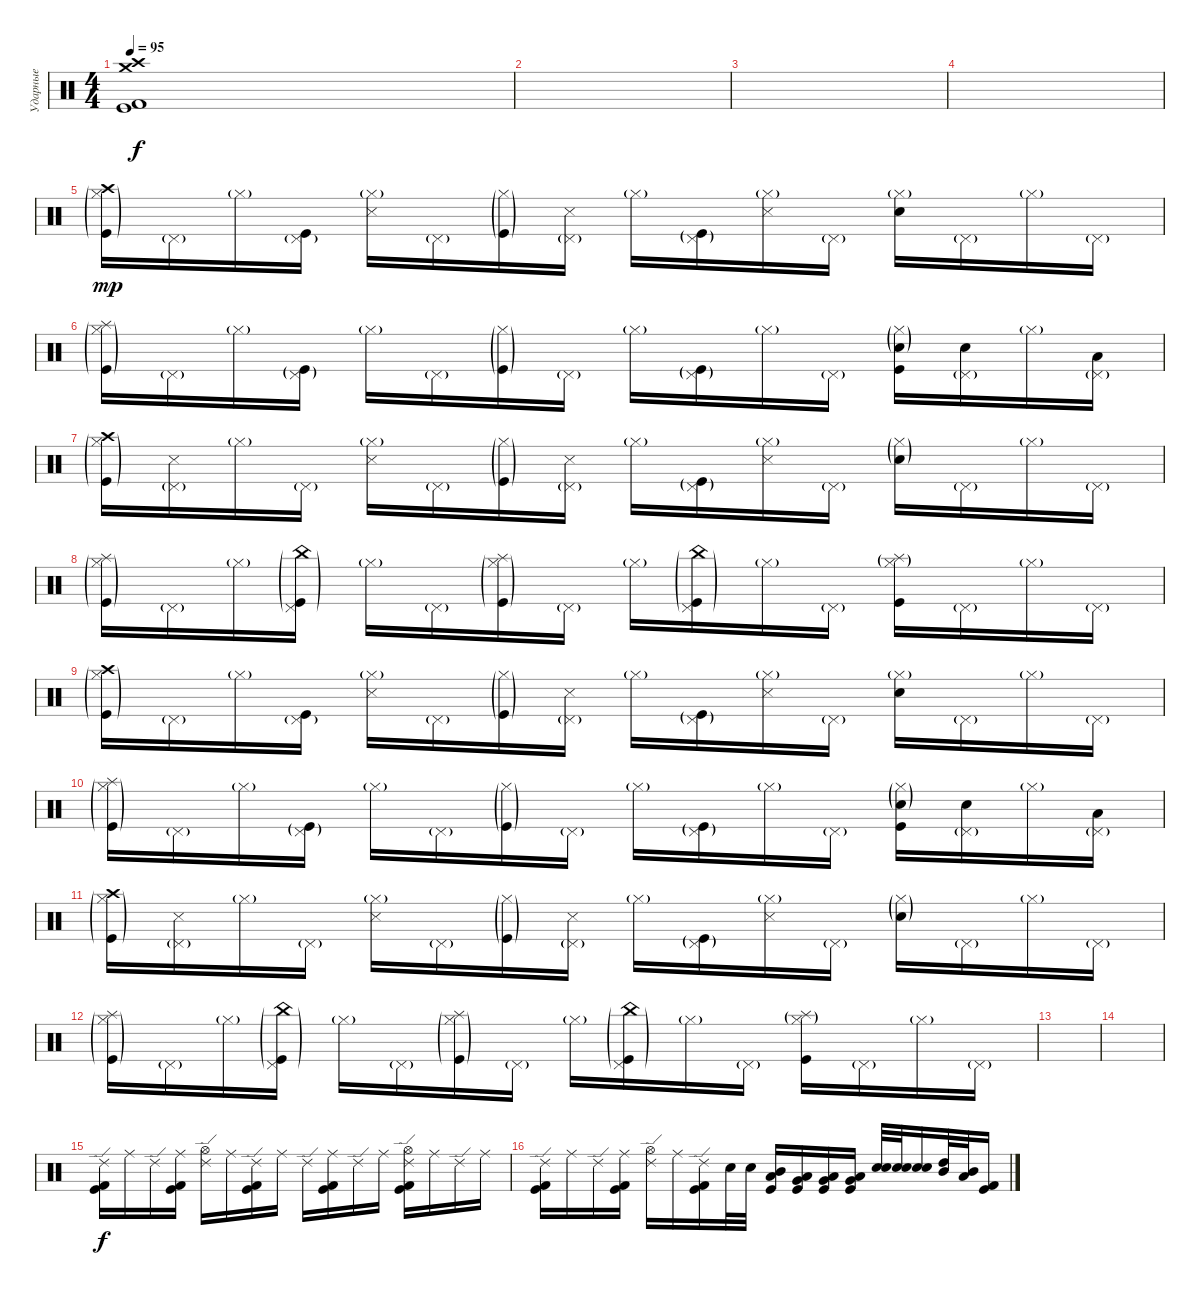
\track ("Ударные" "Ударные") {instrument percussion}
\staff {score}
\articulation defaults
\ts (4 4)
\tempo 95
\clef neutral
\ks c
("Crash high (hit)" "Crash medium (hit)" "Kick (hit) 2" "Kick (hit)").1{dy f} |
|
|
|
("Hi-Hat (closed)"{g} "Crash high (hit)"{g} "Kick (hit)"{g}).16{dy mp} "Pedal Hi-Hat (hit)"{g}.16 "Hi-Hat (closed)"{g}.16 ("Pedal Hi-Hat (hit)"{g} "Kick (hit)").16 ("Hi-Hat (closed)"{g} "Snare (side stick) 3").16 "Pedal Hi-Hat (hit)"{g}.16 ("Hi-Hat (closed)"{g} "Kick (hit)"{g}).16 ("Pedal Hi-Hat (hit)"{g} "Metronome (hit)").16 "Hi-Hat (closed)"{g}.16 ("Pedal Hi-Hat (hit)"{g} "Kick (hit)"{g}).16 ("Hi-Hat (closed)"{g} "Snare (side stick) 3").16 "Pedal Hi-Hat (hit)"{g}.16 ("Hi-Hat (closed)"{g} "Electric Snare (hit)").16 "Pedal Hi-Hat (hit)"{g}.16 "Hi-Hat (closed)"{g}.16 "Pedal Hi-Hat (hit)"{g}.16 |
("Hi-Hat (closed)"{g} "Splash (hit)"{g} "Kick (hit)"{g}).16 "Pedal Hi-Hat (hit)"{g}.16 "Hi-Hat (closed)"{g}.16 ("Pedal Hi-Hat (hit)"{g} "Kick (hit)"{g}).16 "Hi-Hat (closed)"{g}.16 "Pedal Hi-Hat (hit)"{g}.16 ("Hi-Hat (closed)"{g} "Kick (hit)"{g}).16 "Pedal Hi-Hat (hit)"{g}.16 "Hi-Hat (closed)"{g}.16 ("Pedal Hi-Hat (hit)"{g} "Kick (hit)"{g}).16 "Hi-Hat (closed)"{g}.16 "Pedal Hi-Hat (hit)"{g}.16 ("Hi-Hat (closed)"{g} "Electric Snare (hit)"{g} "Kick (hit)").16 ("Pedal Hi-Hat (hit)"{g} "Electric Snare (hit)").16 "Hi-Hat (closed)"{g}.16 ("Pedal Hi-Hat (hit)"{g} "Low Tom (hit)").16 |
("Hi-Hat (closed)"{g} "Crash high (hit)"{g} "Kick (hit)"{g}).16 ("Pedal Hi-Hat (hit)"{g} "Metronome (hit)").16 "Hi-Hat (closed)"{g}.16 "Pedal Hi-Hat (hit)"{g}.16 ("Hi-Hat (closed)"{g} "Snare (side stick) 3").16 "Pedal Hi-Hat (hit)"{g}.16 ("Hi-Hat (closed)"{g} "Kick (hit)"{g}).16 ("Pedal Hi-Hat (hit)"{g} "Metronome (hit)").16 "Hi-Hat (closed)"{g}.16 ("Pedal Hi-Hat (hit)"{g} "Kick (hit)"{g}).16 ("Hi-Hat (closed)"{g} "Snare (side stick) 3").16 "Pedal Hi-Hat (hit)"{g}.16 ("Hi-Hat (closed)"{g} "Electric Snare (hit)"{g}).16 "Pedal Hi-Hat (hit)"{g}.16 "Hi-Hat (closed)"{g}.16 "Pedal Hi-Hat (hit)"{g}.16 |
("Hi-Hat (closed)"{g} "Splash (hit)"{g} "Kick (hit)"{g}).16 "Pedal Hi-Hat (hit)"{g}.16 "Hi-Hat (closed)"{g}.16 ("Pedal Hi-Hat (hit)"{g} "China (hit)"{g} "Kick (hit)"{g}).16 "Hi-Hat (closed)"{g}.16 "Pedal Hi-Hat (hit)"{g}.16 ("Hi-Hat (closed)"{g} "Splash (hit)"{g} "Kick (hit)"{g}).16 "Pedal Hi-Hat (hit)"{g}.16 "Hi-Hat (closed)"{g}.16 ("Pedal Hi-Hat (hit)"{g} "China (hit)"{g} "Kick (hit)"{g}).16 "Hi-Hat (closed)"{g}.16 "Pedal Hi-Hat (hit)"{g}.16 ("Hi-Hat (closed)"{g} "Splash (hit)"{g} "Kick (hit)").16 "Pedal Hi-Hat (hit)"{g}.16 "Hi-Hat (closed)"{g}.16 "Pedal Hi-Hat (hit)"{g}.16 |
("Hi-Hat (closed)"{g} "Crash high (hit)"{g} "Kick (hit)"{g}).16 "Pedal Hi-Hat (hit)"{g}.16 "Hi-Hat (closed)"{g}.16 ("Pedal Hi-Hat (hit)"{g} "Kick (hit)").16 ("Hi-Hat (closed)"{g} "Snare (side stick) 3").16 "Pedal Hi-Hat (hit)"{g}.16 ("Hi-Hat (closed)"{g} "Kick (hit)"{g}).16 ("Pedal Hi-Hat (hit)"{g} "Metronome (hit)").16 "Hi-Hat (closed)"{g}.16 ("Pedal Hi-Hat (hit)"{g} "Kick (hit)"{g}).16 ("Hi-Hat (closed)"{g} "Snare (side stick) 3").16 "Pedal Hi-Hat (hit)"{g}.16 ("Hi-Hat (closed)"{g} "Electric Snare (hit)").16 "Pedal Hi-Hat (hit)"{g}.16 "Hi-Hat (closed)"{g}.16 "Pedal Hi-Hat (hit)"{g}.16 |
("Hi-Hat (closed)"{g} "Splash (hit)"{g} "Kick (hit)"{g}).16 "Pedal Hi-Hat (hit)"{g}.16 "Hi-Hat (closed)"{g}.16 ("Pedal Hi-Hat (hit)"{g} "Kick (hit)"{g}).16 "Hi-Hat (closed)"{g}.16 "Pedal Hi-Hat (hit)"{g}.16 ("Hi-Hat (closed)"{g} "Kick (hit)"{g}).16 "Pedal Hi-Hat (hit)"{g}.16 "Hi-Hat (closed)"{g}.16 ("Pedal Hi-Hat (hit)"{g} "Kick (hit)"{g}).16 "Hi-Hat (closed)"{g}.16 "Pedal Hi-Hat (hit)"{g}.16 ("Hi-Hat (closed)"{g} "Electric Snare (hit)"{g} "Kick (hit)").16 ("Pedal Hi-Hat (hit)"{g} "Electric Snare (hit)").16 "Hi-Hat (closed)"{g}.16 ("Pedal Hi-Hat (hit)"{g} "Low Tom (hit)").16 |
("Hi-Hat (closed)"{g} "Crash high (hit)"{g} "Kick (hit)"{g}).16 ("Pedal Hi-Hat (hit)"{g} "Metronome (hit)").16 "Hi-Hat (closed)"{g}.16 "Pedal Hi-Hat (hit)"{g}.16 ("Hi-Hat (closed)"{g} "Snare (side stick) 3").16 "Pedal Hi-Hat (hit)"{g}.16 ("Hi-Hat (closed)"{g} "Kick (hit)"{g}).16 ("Pedal Hi-Hat (hit)"{g} "Metronome (hit)").16 "Hi-Hat (closed)"{g}.16 ("Pedal Hi-Hat (hit)"{g} "Kick (hit)"{g}).16 ("Hi-Hat (closed)"{g} "Snare (side stick) 3").16 "Pedal Hi-Hat (hit)"{g}.16 ("Hi-Hat (closed)"{g} "Electric Snare (hit)"{g}).16 "Pedal Hi-Hat (hit)"{g}.16 "Hi-Hat (closed)"{g}.16 "Pedal Hi-Hat (hit)"{g}.16 |
("Hi-Hat (closed)"{g} "Splash (hit)"{g} "Kick (hit)"{g}).16 "Pedal Hi-Hat (hit)"{g}.16 "Hi-Hat (closed)"{g}.16 ("Pedal Hi-Hat (hit)"{g} "China (hit)"{g} "Kick (hit)"{g}).16 "Hi-Hat (closed)"{g}.16 "Pedal Hi-Hat (hit)"{g}.16 ("Hi-Hat (closed)"{g} "Splash (hit)"{g} "Kick (hit)"{g}).16 "Pedal Hi-Hat (hit)"{g}.16 "Hi-Hat (closed)"{g}.16 ("Pedal Hi-Hat (hit)"{g} "China (hit)"{g} "Kick (hit)"{g}).16 "Hi-Hat (closed)"{g}.16 "Pedal Hi-Hat (hit)"{g}.16 ("Hi-Hat (closed)"{g} "Splash (hit)"{g} "Kick (hit)").16 "Pedal Hi-Hat (hit)"{g}.16 "Hi-Hat (closed)"{g}.16 "Pedal Hi-Hat (hit)"{g}.16 |
|
|
("Ride (edge) 2" "Kick (hit)" "Kick (hit) 2").16{dy f} "Ride (middle)".16 "Ride (edge) 2".16 ("Ride (middle)" "Kick (hit) 2" "Kick (hit)").16 ("Ride (edge) 2" "Hi-Hat (open)").16 "Ride (middle)".16 ("Ride (edge) 2" "Kick (hit) 2" "Kick (hit)").16 "Ride (middle)".16 "Ride (edge) 2".16 ("Ride (middle)" "Kick (hit)" "Kick (hit) 2").16 "Ride (edge) 2".16 "Ride (middle)".16 ("Ride (edge) 2" "Hi-Hat (open)" "Kick (hit) 2" "Kick (hit)").16 "Ride (middle)".16 "Ride (edge) 2".16 "Ride (middle)".16 |
("Ride (edge) 2" "Kick (hit) 2" "Kick (hit)").16 "Ride (middle)".16 "Ride (edge) 2".16 ("Ride (middle)" "Kick (hit) 2" "Kick (hit)").16 ("Ride (edge) 2" "Hi-Hat (open)").16 "Ride (middle)".16 ("Ride (edge) 2" "Kick (hit) 2" "Kick (hit)").16 "Electric Snare (hit)".32 "Electric Snare (hit)".32 ("Mid Tom (hit)" "Low Tom (hit)" "Kick (hit)").16 ("Low Tom (hit)" "Very Low Tom (hit)" "Kick (hit)").16 ("Very Low Tom (hit)" "Low Floor Tom (hit)" "Kick (hit)").16 ("Very Low Tom (hit)" "Low Floor Tom (hit)" "Kick (hit)").16 ("Electric Snare (hit)" "Snare (hit)").32 ("Electric Snare (hit)" "Snare (hit)").32 ("Electric Snare (hit)" "Snare (hit)").16 ("High Tom (hit)" "Mid Tom (hit)").32 ("Mid Tom (hit)" "Low Tom (hit)").32 ("Kick (hit) 2" "Kick (hit)").16
